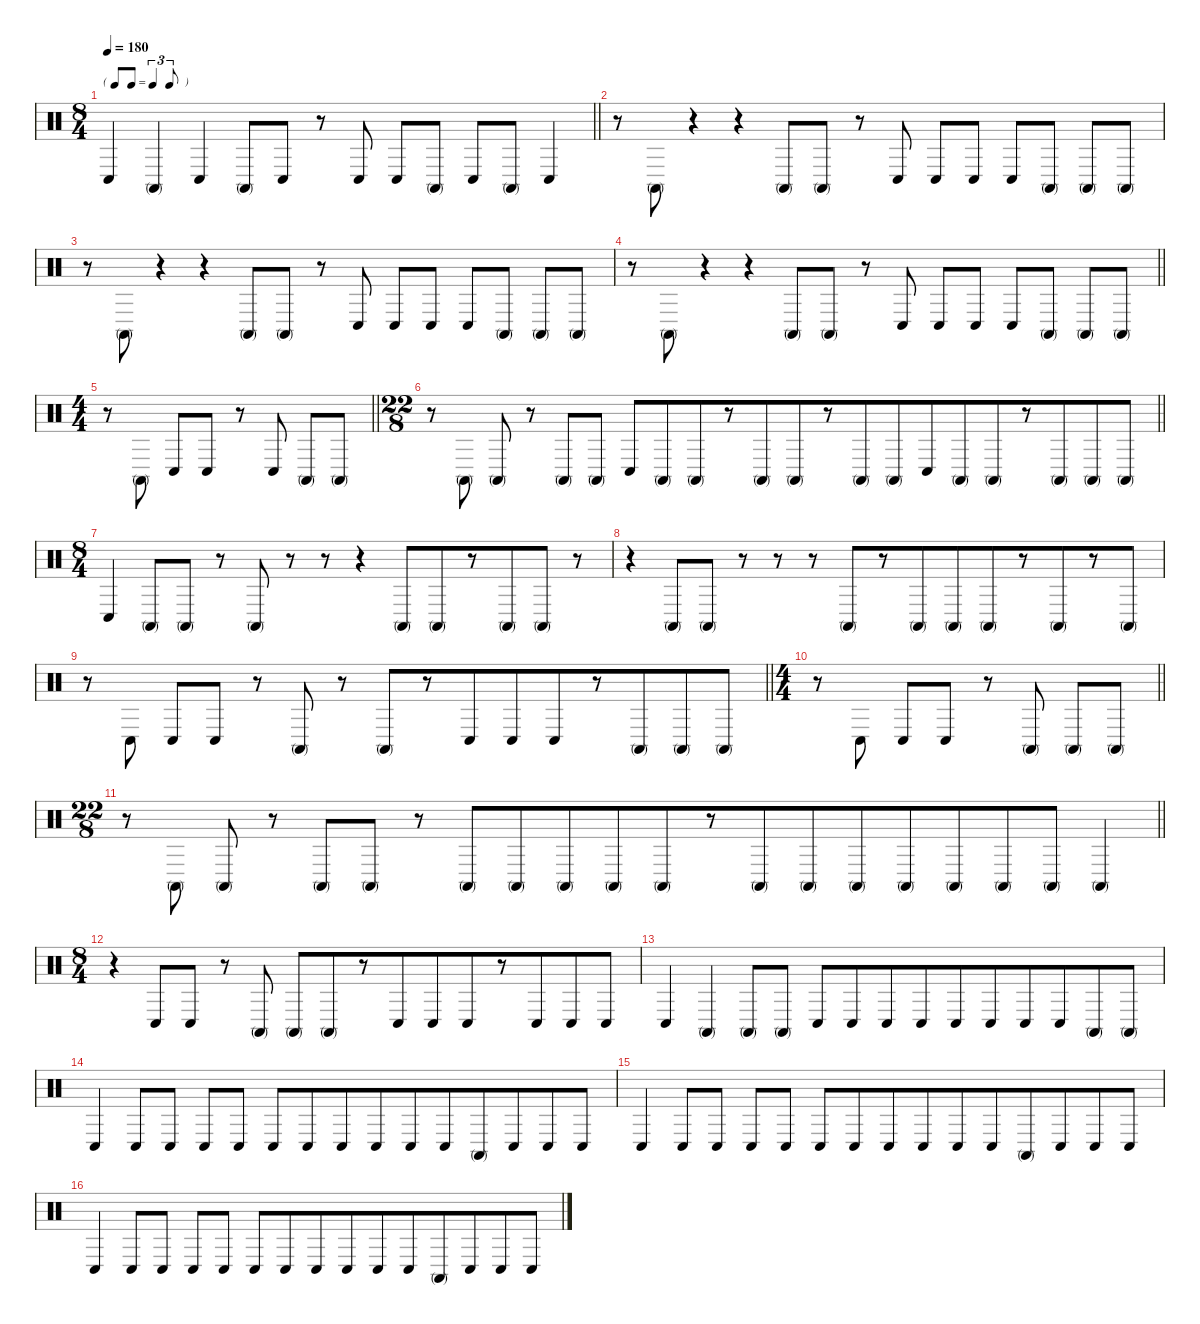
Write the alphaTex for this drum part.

\defaultSystemsLayout 4
\hideDynamics
\bracketExtendMode nobrackets
\singleTrackTrackNamePolicy hidden
\multiTrackTrackNamePolicy hidden
\firstSystemTrackNameMode fullname
\firstSystemTrackNameOrientation horizontal
\otherSystemsTrackNameOrientation horizontal
\track ("Congas" "drm.") {instrument percussion}
\staff {score}
\articulation defaults
\ts (8 4)
\tf triplet8th
\tempo 180
\clef neutral
\barLineRight lightlight
\ks c "Conga low (hit)".4{dy f beam Up} "Conga high (mute)".4{beam Up} "Conga low (hit)".4{beam Up} "Conga high (mute)".8{beam Up} "Conga low (hit)".8{beam Up}
r.8{beam Up} "Conga low (hit)".8{beam Up} "Conga low (hit)".8{beam Up} "Conga high (mute)".8{beam Up} "Conga low (hit)".8{beam Up} "Conga high (mute)".8{beam Up} "Conga low (hit)".4{beam Up} |
r.8{beam Down} "Conga high (mute)".8{beam Up} r.4{beam Up} r.4{beam Up} "Conga high (mute)".8{beam Up} "Conga high (mute)".8{beam Up} r.8{beam Up} "Conga low (hit)".8{beam Up} "Conga low (hit)".8{beam Up} "Conga low (hit)".8{beam Up} "Conga low (hit)".8{beam Up} "Conga high (mute)".8{beam Up} "Conga high (mute)".8{beam Up} "Conga high (mute)".8{beam Up} |
r.8{beam Down} "Conga high (mute)".8{beam Up} r.4{beam Up} r.4{beam Up} "Conga high (mute)".8{beam Up} "Conga high (mute)".8{beam Up} r.8{beam Up} "Conga low (hit)".8{beam Up} "Conga low (hit)".8{beam Up} "Conga low (hit)".8{beam Up} "Conga low (hit)".8{beam Up} "Conga high (mute)".8{beam Up} "Conga high (mute)".8{beam Up} "Conga high (mute)".8{beam Up} |
\barLineRight lightlight
r.8{beam Down} "Conga high (mute)".8{beam Up} r.4{beam Up} r.4{beam Up} "Conga high (mute)".8{beam Up} "Conga high (mute)".8{beam Up} r.8{beam Up} "Conga low (hit)".8{beam Up} "Conga low (hit)".8{beam Up} "Conga low (hit)".8{beam Up} "Conga low (hit)".8{beam Up} "Conga high (mute)".8{beam Up} "Conga high (mute)".8{beam Up} "Conga high (mute)".8{beam Up} |
\ts (4 4)
\beaming (8 2 2 2 2)
\barLineRight lightlight
r.8{beam Down} "Conga high (mute)".8{beam Up} "Conga low (hit)".8{beam Up} "Conga low (hit)".8{beam Up} r.8{beam Up} "Conga low (hit)".8{beam Up} "Conga high (mute)".8{beam Up} "Conga high (mute)".8{beam Up} |
\ts (22 8)
\beaming (8 2 2 2 16)
\barLineRight lightlight
r.8{beam Down} "Conga high (mute)".8{beam Up} "Conga high (mute)".8{beam Up} r.8{beam Up} "Conga high (mute)".8{beam Up} "Conga high (mute)".8{beam Up} "Conga low (hit)".8{beam Up} "Conga high (mute)".8{beam Up} "Conga high (mute)".8{beam Up} r.8{beam Up} "Conga high (mute)".8{beam Up} "Conga high (mute)".8{beam Up} r.8{beam Up} "Conga high (mute)".8{beam Up} "Conga high (mute)".8{beam Up} "Conga low (hit)".8{beam Up} "Conga high (mute)".8{beam Up} "Conga high (mute)".8{beam Up} r.8{beam Up} "Conga high (mute)".8{beam Up} "Conga high (mute)".8{beam Up} "Conga high (mute)".8{beam Up} |
\ts (8 4)
\beaming (8 2 2 2 10)
"Conga low (hit)".4{beam Up} "Conga high (mute)".8{beam Up} "Conga high (mute)".8{beam Up} r.8{beam Up} "Conga high (mute)".8{beam Up} r.8{beam Up} r.8{beam Up} r.4{beam Up} "Conga high (mute)".8{beam Up} "Conga high (mute)".8{beam Up} r.8{beam Up} "Conga high (mute)".8{beam Up} "Conga high (mute)".8{beam Up} r.8{beam Up} |
r.4{beam Down} "Conga high (mute)".8{beam Up} "Conga high (mute)".8{beam Up} r.8{beam Up} r.8{beam Up} r.8{beam Up} "Conga high (mute)".8{beam Up} r.8{beam Up} "Conga high (mute)".8{beam Up} "Conga high (mute)".8{beam Up} "Conga high (mute)".8{beam Up} r.8{beam Up} "Conga high (mute)".8{beam Up} r.8{beam Up} "Conga high (mute)".8{beam Up} |
\barLineRight lightlight
r.8{beam Down} "Conga low (hit)".8{beam Up} "Conga low (hit)".8{beam Up} "Conga low (hit)".8{beam Up} r.8{beam Up} "Conga high (mute)".8{beam Up} r.8{beam Up} "Conga high (mute)".8{beam Up} r.8{beam Up} "Conga low (hit)".8{beam Up} "Conga low (hit)".8{beam Up} "Conga low (hit)".8{beam Up} r.8{beam Up} "Conga high (mute)".8{beam Up} "Conga high (mute)".8{beam Up} "Conga high (mute)".8{beam Up} |
\ts (4 4)
\beaming (8 2 2 2 2)
\barLineRight lightlight
r.8{beam Down} "Conga low (hit)".8{beam Up} "Conga low (hit)".8{beam Up} "Conga low (hit)".8{beam Up} r.8{beam Up} "Conga high (mute)".8{beam Up} "Conga high (mute)".8{beam Up} "Conga high (mute)".8{beam Up} |
\ts (22 8)
\beaming (8 2 2 2 16)
\barLineRight lightlight
r.8{beam Down} "Conga high (mute)".8{beam Up} "Conga high (mute)".8{beam Up} r.8{beam Up} "Conga high (mute)".8{beam Up} "Conga high (mute)".8{beam Up} r.8{beam Up} "Conga high (mute)".8{beam Up} "Conga high (mute)".8{beam Up} "Conga high (mute)".8{beam Up} "Conga high (mute)".8{beam Up} "Conga high (mute)".8{beam Up} r.8{beam Up} "Conga high (mute)".8{beam Up} "Conga high (mute)".8{beam Up} "Conga high (mute)".8{beam Up} "Conga high (mute)".8{beam Up} "Conga high (mute)".8{beam Up} "Conga high (mute)".8{beam Up} "Conga high (mute)".8{beam Up} "Conga high (mute)".4{beam Up} |
\ts (8 4)
\beaming (8 2 2 2 10)
r.4{beam Down} "Conga low (hit)".8{beam Up} "Conga low (hit)".8{beam Up} r.8{beam Up} "Conga high (mute)".8{beam Up} "Conga high (mute)".8{beam Up} "Conga high (mute)".8{beam Up} r.8{beam Up} "Conga low (hit)".8{beam Up} "Conga low (hit)".8{beam Up} "Conga low (hit)".8{beam Up} r.8{beam Up} "Conga low (hit)".8{beam Up} "Conga low (hit)".8{beam Up} "Conga low (hit)".8{beam Up} |
"Conga low (hit)".4{beam Up} "Conga high (mute)".4{beam Up} "Conga high (mute)".8{beam Up} "Conga high (mute)".8{beam Up} "Conga low (hit)".8{beam Up} "Conga low (hit)".8{beam Up} "Conga low (hit)".8{beam Up} "Conga low (hit)".8{beam Up} "Conga low (hit)".8{beam Up} "Conga low (hit)".8{beam Up} "Conga low (hit)".8{beam Up} "Conga low (hit)".8{beam Up} "Conga high (mute)".8{beam Up} "Conga high (mute)".8{beam Up} |
"Conga low (hit)".4{beam Up} "Conga low (hit)".8{beam Up} "Conga low (hit)".8{beam Up} "Conga low (hit)".8{beam Up} "Conga low (hit)".8{beam Up} "Conga low (hit)".8{beam Up} "Conga low (hit)".8{beam Up} "Conga low (hit)".8{beam Up} "Conga low (hit)".8{beam Up} "Conga low (hit)".8{beam Up} "Conga low (hit)".8{beam Up} "Conga high (mute)".8{beam Up} "Conga low (hit)".8{beam Up} "Conga low (hit)".8{beam Up} "Conga low (hit)".8{beam Up} |
"Conga low (hit)".4{beam Up} "Conga low (hit)".8{beam Up} "Conga low (hit)".8{beam Up} "Conga low (hit)".8{beam Up} "Conga low (hit)".8{beam Up} "Conga low (hit)".8{beam Up} "Conga low (hit)".8{beam Up} "Conga low (hit)".8{beam Up} "Conga low (hit)".8{beam Up} "Conga low (hit)".8{beam Up} "Conga low (hit)".8{beam Up} "Conga high (mute)".8{beam Up} "Conga low (hit)".8{beam Up} "Conga low (hit)".8{beam Up} "Conga low (hit)".8{beam Up} |
"Conga low (hit)".4{beam Up} "Conga low (hit)".8{beam Up} "Conga low (hit)".8{beam Up} "Conga low (hit)".8{beam Up} "Conga low (hit)".8{beam Up} "Conga low (hit)".8{beam Up} "Conga low (hit)".8{beam Up} "Conga low (hit)".8{beam Up} "Conga low (hit)".8{beam Up} "Conga low (hit)".8{beam Up} "Conga low (hit)".8{beam Up} "Conga high (mute)".8{beam Up} "Conga low (hit)".8{beam Up} "Conga low (hit)".8{beam Up} "Conga low (hit)".8{beam Up}
